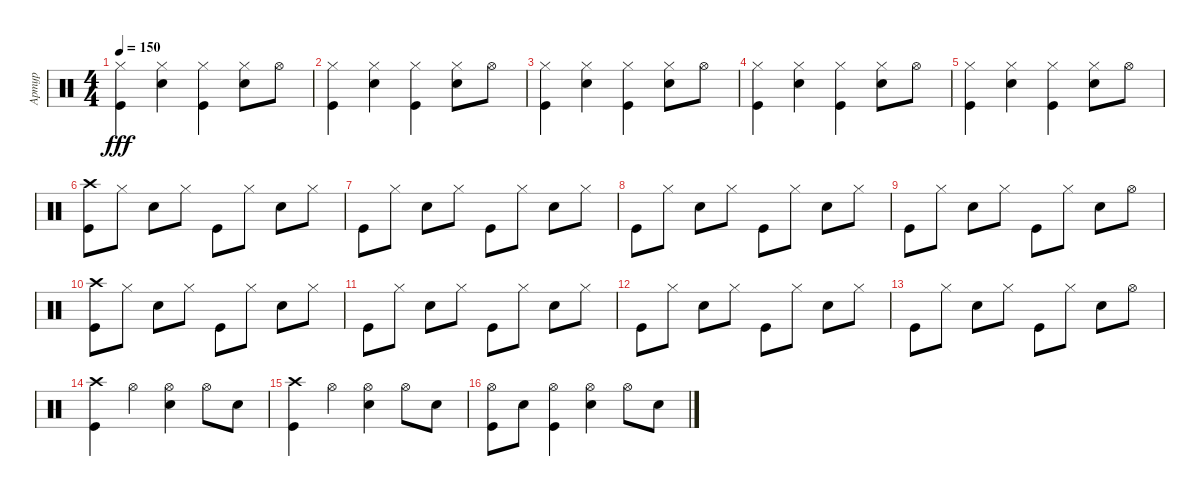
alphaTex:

\track ("Артур" "Артур") {instrument percussion}
\staff {score}
\articulation defaults
\ts (4 4)
\tempo 150
\clef neutral
\ks c
("Hi-Hat (closed)" "Kick (hit)").4{dy fff} ("Hi-Hat (closed)" "Electric Snare (hit)").4 ("Kick (hit)" "Hi-Hat (closed)").4 ("Hi-Hat (closed)" "Electric Snare (hit)").8 "Hi-Hat (open)".8 |
("Hi-Hat (closed)" "Kick (hit)").4 ("Hi-Hat (closed)" "Electric Snare (hit)").4 ("Kick (hit)" "Hi-Hat (closed)").4 ("Hi-Hat (closed)" "Electric Snare (hit)").8 "Hi-Hat (open)".8 |
("Hi-Hat (closed)" "Kick (hit)").4 ("Hi-Hat (closed)" "Electric Snare (hit)").4 ("Kick (hit)" "Hi-Hat (closed)").4 ("Hi-Hat (closed)" "Electric Snare (hit)").8 "Hi-Hat (open)".8 |
("Hi-Hat (closed)" "Kick (hit)").4 ("Hi-Hat (closed)" "Electric Snare (hit)").4 ("Kick (hit)" "Hi-Hat (closed)").4 ("Hi-Hat (closed)" "Electric Snare (hit)").8 "Hi-Hat (open)".8 |
("Hi-Hat (closed)" "Kick (hit)").4 ("Hi-Hat (closed)" "Electric Snare (hit)").4 ("Kick (hit)" "Hi-Hat (closed)").4 ("Hi-Hat (closed)" "Electric Snare (hit)").8 "Hi-Hat (open)".8 |
("Kick (hit)" "Crash high (hit)").8 "Hi-Hat (closed)".8 "Electric Snare (hit)".8 "Hi-Hat (closed)".8 "Kick (hit)".8 "Hi-Hat (closed)".8 "Electric Snare (hit)".8 "Hi-Hat (closed)".8 |
"Kick (hit)".8 "Hi-Hat (closed)".8 "Electric Snare (hit)".8 "Hi-Hat (closed)".8 "Kick (hit)".8 "Hi-Hat (closed)".8 "Electric Snare (hit)".8 "Hi-Hat (closed)".8 |
"Kick (hit)".8 "Hi-Hat (closed)".8 "Electric Snare (hit)".8 "Hi-Hat (closed)".8 "Kick (hit)".8 "Hi-Hat (closed)".8 "Electric Snare (hit)".8 "Hi-Hat (closed)".8 |
"Kick (hit)".8 "Hi-Hat (closed)".8 "Electric Snare (hit)".8 "Hi-Hat (closed)".8 "Kick (hit)".8 "Hi-Hat (closed)".8 "Electric Snare (hit)".8 "Hi-Hat (open)".8 |
("Kick (hit)" "Crash high (hit)").8 "Hi-Hat (closed)".8 "Electric Snare (hit)".8 "Hi-Hat (closed)".8 "Kick (hit)".8 "Hi-Hat (closed)".8 "Electric Snare (hit)".8 "Hi-Hat (closed)".8 |
"Kick (hit)".8 "Hi-Hat (closed)".8 "Electric Snare (hit)".8 "Hi-Hat (closed)".8 "Kick (hit)".8 "Hi-Hat (closed)".8 "Electric Snare (hit)".8 "Hi-Hat (closed)".8 |
"Kick (hit)".8 "Hi-Hat (closed)".8 "Electric Snare (hit)".8 "Hi-Hat (closed)".8 "Kick (hit)".8 "Hi-Hat (closed)".8 "Electric Snare (hit)".8 "Hi-Hat (closed)".8 |
"Kick (hit)".8 "Hi-Hat (closed)".8 "Electric Snare (hit)".8 "Hi-Hat (closed)".8 "Kick (hit)".8 "Hi-Hat (closed)".8 "Electric Snare (hit)".8 "Hi-Hat (open)".8 |
("Crash high (hit)" "Kick (hit)").4 "Hi-Hat (open)".4 ("Hi-Hat (open)" "Electric Snare (hit)").4 "Hi-Hat (open)".8 "Electric Snare (hit)".8 |
("Crash high (hit)" "Kick (hit)").4 "Hi-Hat (open)".4 ("Electric Snare (hit)" "Hi-Hat (open)").4 "Hi-Hat (open)".8 "Electric Snare (hit)".8 |
("Hi-Hat (open)" "Kick (hit)").8 "Electric Snare (hit)".8 ("Hi-Hat (open)" "Kick (hit)").4 ("Electric Snare (hit)" "Hi-Hat (open)").4 "Hi-Hat (open)".8 "Electric Snare (hit)".8
